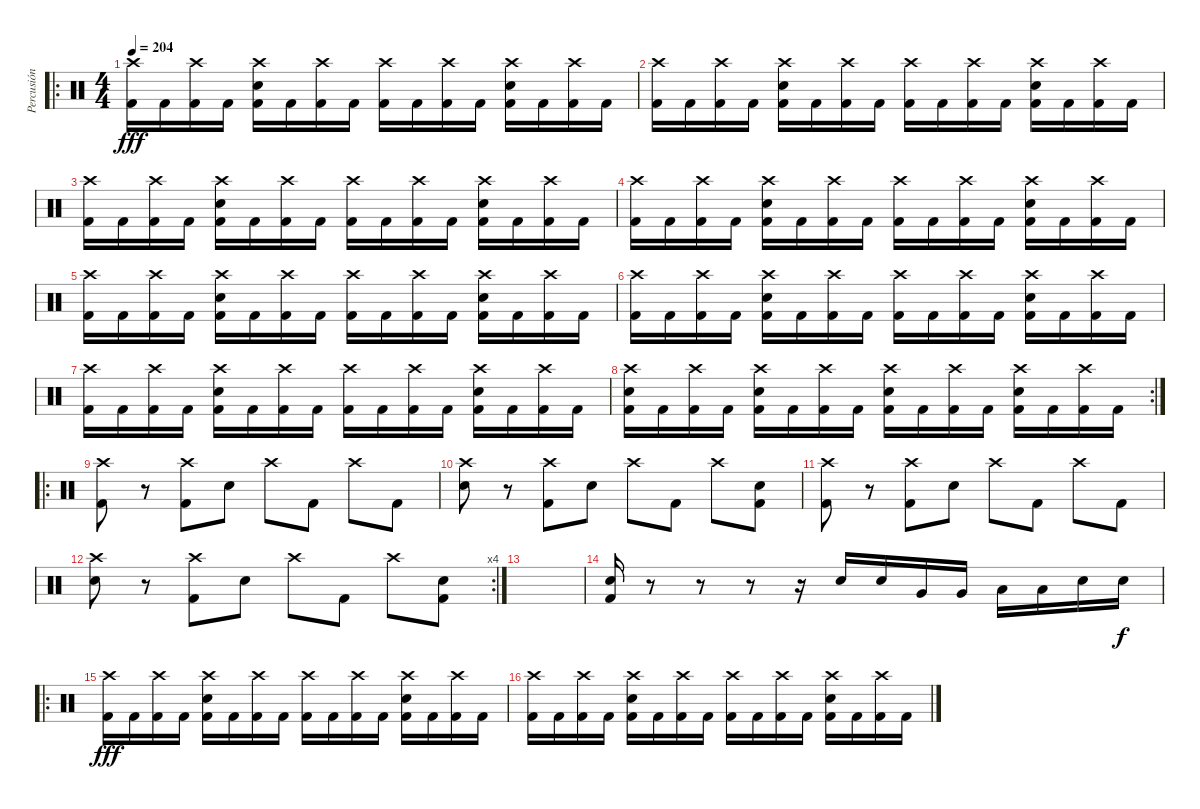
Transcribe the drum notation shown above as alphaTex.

\track ("Percusión" "Percusión") {instrument percussion}
\staff {score}
\articulation defaults
\ro
\ts (4 4)
\tempo 204
\clef neutral
\ks c
("Crash high (hit)" "Kick (hit) 2").16{dy fff} "Kick (hit) 2".16 ("Crash high (hit)" "Kick (hit) 2").16 "Kick (hit) 2".16 ("Crash high (hit)" "Snare (hit) 2" "Kick (hit) 2").16 "Kick (hit) 2".16 ("Crash high (hit)" "Kick (hit) 2").16 "Kick (hit) 2".16 ("Crash high (hit)" "Kick (hit) 2").16 "Kick (hit) 2".16 ("Crash high (hit)" "Kick (hit) 2").16 "Kick (hit) 2".16 ("Crash high (hit)" "Snare (hit) 2" "Kick (hit) 2").16 "Kick (hit) 2".16 ("Crash high (hit)" "Kick (hit) 2").16 "Kick (hit) 2".16 |
("Crash high (hit)" "Kick (hit) 2").16 "Kick (hit) 2".16 ("Crash high (hit)" "Kick (hit) 2").16 "Kick (hit) 2".16 ("Crash high (hit)" "Snare (hit) 2" "Kick (hit) 2").16 "Kick (hit) 2".16 ("Crash high (hit)" "Kick (hit) 2").16 "Kick (hit) 2".16 ("Crash high (hit)" "Kick (hit) 2").16 "Kick (hit) 2".16 ("Crash high (hit)" "Kick (hit) 2").16 "Kick (hit) 2".16 ("Crash high (hit)" "Snare (hit) 2" "Kick (hit) 2").16 "Kick (hit) 2".16 ("Crash high (hit)" "Kick (hit) 2").16 "Kick (hit) 2".16 |
("Crash high (hit)" "Kick (hit) 2").16 "Kick (hit) 2".16 ("Crash high (hit)" "Kick (hit) 2").16 "Kick (hit) 2".16 ("Crash high (hit)" "Snare (hit) 2" "Kick (hit) 2").16 "Kick (hit) 2".16 ("Crash high (hit)" "Kick (hit) 2").16 "Kick (hit) 2".16 ("Crash high (hit)" "Kick (hit) 2").16 "Kick (hit) 2".16 ("Crash high (hit)" "Kick (hit) 2").16 "Kick (hit) 2".16 ("Crash high (hit)" "Snare (hit) 2" "Kick (hit) 2").16 "Kick (hit) 2".16 ("Crash high (hit)" "Kick (hit) 2").16 "Kick (hit) 2".16 |
("Crash high (hit)" "Kick (hit) 2").16 "Kick (hit) 2".16 ("Crash high (hit)" "Kick (hit) 2").16 "Kick (hit) 2".16 ("Crash high (hit)" "Snare (hit) 2" "Kick (hit) 2").16 "Kick (hit) 2".16 ("Crash high (hit)" "Kick (hit) 2").16 "Kick (hit) 2".16 ("Crash high (hit)" "Kick (hit) 2").16 "Kick (hit) 2".16 ("Crash high (hit)" "Kick (hit) 2").16 "Kick (hit) 2".16 ("Crash high (hit)" "Snare (hit) 2" "Kick (hit) 2").16 "Kick (hit) 2".16 ("Crash high (hit)" "Kick (hit) 2").16 "Kick (hit) 2".16 |
("Crash high (hit)" "Kick (hit) 2").16 "Kick (hit) 2".16 ("Crash high (hit)" "Kick (hit) 2").16 "Kick (hit) 2".16 ("Crash high (hit)" "Snare (hit) 2" "Kick (hit) 2").16 "Kick (hit) 2".16 ("Crash high (hit)" "Kick (hit) 2").16 "Kick (hit) 2".16 ("Crash high (hit)" "Kick (hit) 2").16 "Kick (hit) 2".16 ("Crash high (hit)" "Kick (hit) 2").16 "Kick (hit) 2".16 ("Crash high (hit)" "Snare (hit) 2" "Kick (hit) 2").16 "Kick (hit) 2".16 ("Crash high (hit)" "Kick (hit) 2").16 "Kick (hit) 2".16 |
("Crash high (hit)" "Kick (hit) 2").16 "Kick (hit) 2".16 ("Crash high (hit)" "Kick (hit) 2").16 "Kick (hit) 2".16 ("Crash high (hit)" "Snare (hit) 2" "Kick (hit) 2").16 "Kick (hit) 2".16 ("Crash high (hit)" "Kick (hit) 2").16 "Kick (hit) 2".16 ("Crash high (hit)" "Kick (hit) 2").16 "Kick (hit) 2".16 ("Crash high (hit)" "Kick (hit) 2").16 "Kick (hit) 2".16 ("Crash high (hit)" "Snare (hit) 2" "Kick (hit) 2").16 "Kick (hit) 2".16 ("Crash high (hit)" "Kick (hit) 2").16 "Kick (hit) 2".16 |
("Crash high (hit)" "Kick (hit) 2").16 "Kick (hit) 2".16 ("Crash high (hit)" "Kick (hit) 2").16 "Kick (hit) 2".16 ("Crash high (hit)" "Snare (hit) 2" "Kick (hit) 2").16 "Kick (hit) 2".16 ("Crash high (hit)" "Kick (hit) 2").16 "Kick (hit) 2".16 ("Crash high (hit)" "Kick (hit) 2").16 "Kick (hit) 2".16 ("Crash high (hit)" "Kick (hit) 2").16 "Kick (hit) 2".16 ("Crash high (hit)" "Snare (hit) 2" "Kick (hit) 2").16 "Kick (hit) 2".16 ("Crash high (hit)" "Kick (hit) 2").16 "Kick (hit) 2".16 |
\rc 2
("Crash high (hit)" "Electric Snare (hit)" "Kick (hit) 2").16 "Kick (hit) 2".16 ("Crash high (hit)" "Kick (hit) 2").16 "Kick (hit) 2".16 ("Crash high (hit)" "Electric Snare (hit)" "Kick (hit) 2").16 "Kick (hit) 2".16 ("Crash high (hit)" "Kick (hit) 2").16 "Kick (hit) 2".16 ("Crash high (hit)" "Electric Snare (hit)" "Kick (hit) 2").16 "Kick (hit) 2".16 ("Crash high (hit)" "Kick (hit) 2").16 "Kick (hit) 2".16 ("Crash high (hit)" "Electric Snare (hit)" "Kick (hit) 2").16 "Kick (hit) 2".16 ("Crash high (hit)" "Kick (hit) 2").16 "Kick (hit) 2".16 |
\ro
("Crash high (hit)" "Kick (hit) 2").8 r.8 ("Crash high (hit)" "Kick (hit) 2").8 "Snare (hit) 2".8 "Crash high (hit)".8 "Kick (hit) 2".8 "Crash high (hit)".8 "Kick (hit) 2".8 |
("Crash high (hit)" "Snare (hit) 2").8 r.8 ("Crash high (hit)" "Kick (hit) 2").8 "Snare (hit) 2".8 "Crash high (hit)".8 "Kick (hit) 2".8 "Crash high (hit)".8 ("Snare (hit) 2" "Kick (hit) 2").8 |
("Crash high (hit)" "Kick (hit) 2").8 r.8 ("Crash high (hit)" "Kick (hit) 2").8 "Snare (hit) 2".8 "Crash high (hit)".8 "Kick (hit) 2".8 "Crash high (hit)".8 "Kick (hit) 2".8 |
\rc 4
("Crash high (hit)" "Snare (hit) 2").8 r.8 ("Crash high (hit)" "Kick (hit) 2").8 "Snare (hit) 2".8 "Crash high (hit)".8 "Kick (hit) 2".8 "Crash high (hit)".8 ("Snare (hit) 2" "Kick (hit) 2").8 |
|
("Snare (hit) 2" "Kick (hit) 2").16 r.8 r.8 r.8 r.16 "Snare (hit) 2".16 "Snare (hit) 2".16 "Very Low Tom (hit)".16 "Very Low Tom (hit)".16 "Low Floor Tom (hit)".16 "Low Floor Tom (hit)".16 "Snare (hit) 2".16 "Snare (hit) 2".16{dy f} |
\ro
("Crash high (hit)" "Kick (hit) 2").16{dy fff} "Kick (hit) 2".16 ("Crash high (hit)" "Kick (hit) 2").16 "Kick (hit) 2".16 ("Crash high (hit)" "Snare (hit) 2" "Kick (hit) 2").16 "Kick (hit) 2".16 ("Crash high (hit)" "Kick (hit) 2").16 "Kick (hit) 2".16 ("Crash high (hit)" "Kick (hit) 2").16 "Kick (hit) 2".16 ("Crash high (hit)" "Kick (hit) 2").16 "Kick (hit) 2".16 ("Crash high (hit)" "Snare (hit) 2" "Kick (hit) 2").16 "Kick (hit) 2".16 ("Crash high (hit)" "Kick (hit) 2").16 "Kick (hit) 2".16 |
("Crash high (hit)" "Kick (hit) 2").16 "Kick (hit) 2".16 ("Crash high (hit)" "Kick (hit) 2").16 "Kick (hit) 2".16 ("Crash high (hit)" "Snare (hit) 2" "Kick (hit) 2").16 "Kick (hit) 2".16 ("Crash high (hit)" "Kick (hit) 2").16 "Kick (hit) 2".16 ("Crash high (hit)" "Kick (hit) 2").16 "Kick (hit) 2".16 ("Crash high (hit)" "Kick (hit) 2").16 "Kick (hit) 2".16 ("Crash high (hit)" "Snare (hit) 2" "Kick (hit) 2").16 "Kick (hit) 2".16 ("Crash high (hit)" "Kick (hit) 2").16 "Kick (hit) 2".16
